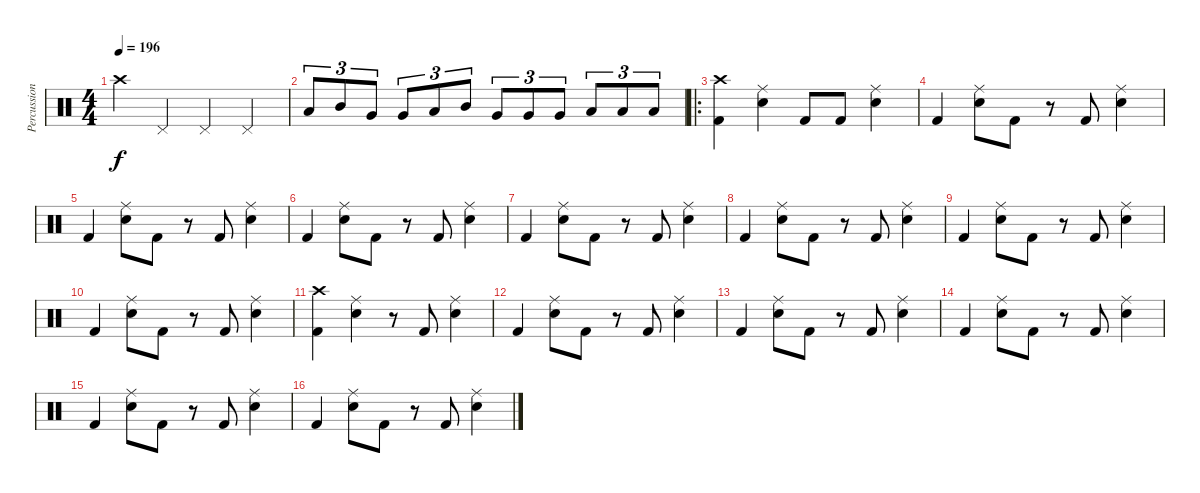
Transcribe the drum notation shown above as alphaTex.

\track ("Percussion" "Percussion") {instrument percussion}
\staff {score}
\articulation defaults
\ts (4 4)
\tempo 196
\clef neutral
\ks c "Crash high (hit)"{t}.4{dy f} "Pedal Hi-Hat (hit)".4 "Pedal Hi-Hat (hit)".4 "Pedal Hi-Hat (hit)".4
|
"Low Tom (hit)".8{tu (3 2)} "Mid Tom (hit)".8{tu (3 2)} "Very Low Tom (hit)".8{tu (3 2)} "Very Low Tom (hit)".8{tu (3 2)} "Low Tom (hit)".8{tu (3 2)} "Mid Tom (hit)".8{tu (3 2)} "Very Low Tom (hit)".8{tu (3 2)} "Very Low Tom (hit)".8{tu (3 2)} "Very Low Tom (hit)".8{tu (3 2)} "Low Tom (hit)".8{tu (3 2)} "Low Tom (hit)".8{tu (3 2)} "Low Tom (hit)".8{tu (3 2)} |
\ro
("Crash high (hit)" "Kick (hit) 2").4 ("Ride (middle)" "Snare (hit) 2").4 "Kick (hit) 2".8 "Kick (hit) 2".8 ("Ride (middle)" "Snare (hit) 2").4 |
"Kick (hit) 2".4 ("Ride (middle)" "Snare (hit) 2").8 "Kick (hit) 2".8 r.8 "Kick (hit) 2".8 ("Ride (middle)" "Snare (hit) 2").4 |
"Kick (hit) 2".4 ("Ride (middle)" "Snare (hit) 2").8 "Kick (hit) 2".8 r.8 "Kick (hit) 2".8 ("Ride (middle)" "Snare (hit) 2").4 |
"Kick (hit) 2".4 ("Ride (middle)" "Snare (hit) 2").8 "Kick (hit) 2".8 r.8 "Kick (hit) 2".8 ("Ride (middle)" "Snare (hit) 2").4 |
"Kick (hit) 2".4 ("Ride (middle)" "Snare (hit) 2").8 "Kick (hit) 2".8 r.8 "Kick (hit) 2".8 ("Ride (middle)" "Snare (hit) 2").4 |
"Kick (hit) 2".4 ("Ride (middle)" "Snare (hit) 2").8 "Kick (hit) 2".8 r.8 "Kick (hit) 2".8 ("Ride (middle)" "Snare (hit) 2").4 |
"Kick (hit) 2".4 ("Ride (middle)" "Snare (hit) 2").8 "Kick (hit) 2".8 r.8 "Kick (hit) 2".8 ("Ride (middle)" "Snare (hit) 2").4 |
"Kick (hit) 2".4 ("Ride (middle)" "Snare (hit) 2").8 "Kick (hit) 2".8 r.8 "Kick (hit) 2".8 ("Ride (middle)" "Snare (hit) 2").4 |
("Crash high (hit)" "Kick (hit) 2").4 ("Ride (middle)" "Snare (hit) 2").4 r.8 "Kick (hit) 2".8 ("Ride (middle)" "Snare (hit) 2").4 |
"Kick (hit) 2".4 ("Ride (middle)" "Snare (hit) 2").8 "Kick (hit) 2".8 r.8 "Kick (hit) 2".8 ("Ride (middle)" "Snare (hit) 2").4 |
"Kick (hit) 2".4 ("Ride (middle)" "Snare (hit) 2").8 "Kick (hit) 2".8 r.8 "Kick (hit) 2".8 ("Ride (middle)" "Snare (hit) 2").4 |
"Kick (hit) 2".4 ("Ride (middle)" "Snare (hit) 2").8 "Kick (hit) 2".8 r.8 "Kick (hit) 2".8 ("Ride (middle)" "Snare (hit) 2").4 |
"Kick (hit) 2".4 ("Ride (middle)" "Snare (hit) 2").8 "Kick (hit) 2".8 r.8 "Kick (hit) 2".8 ("Ride (middle)" "Snare (hit) 2").4 |
"Kick (hit) 2".4 ("Ride (middle)" "Snare (hit) 2").8 "Kick (hit) 2".8 r.8 "Kick (hit) 2".8 ("Ride (middle)" "Snare (hit) 2").4
